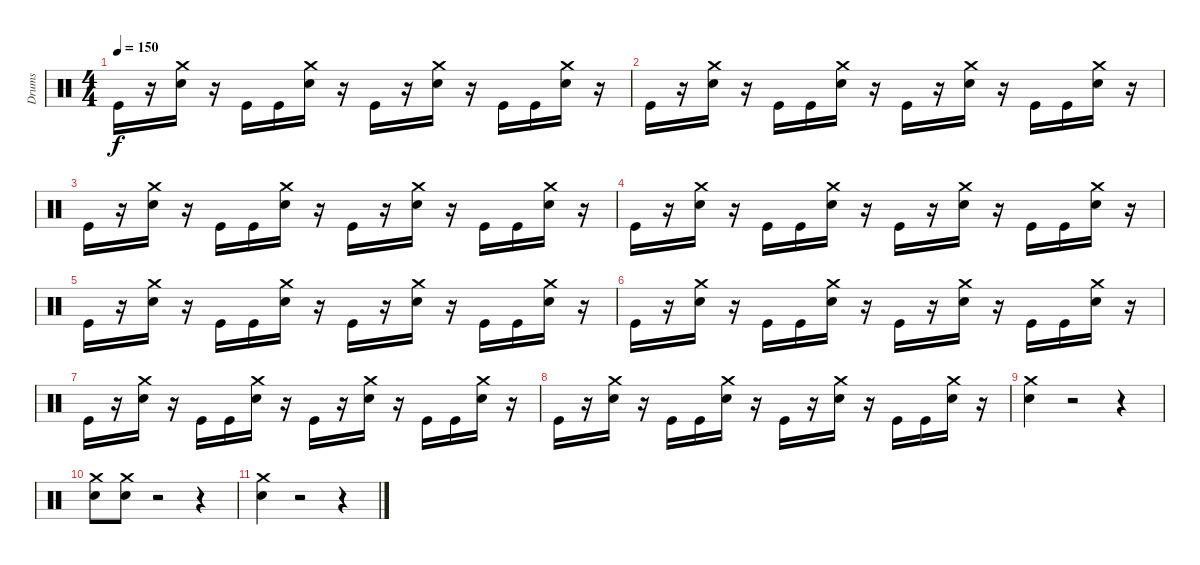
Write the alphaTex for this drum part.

\track ("Drums" "Drums") {instrument percussion}
\staff {score}
\articulation defaults
\ts (4 4)
\tempo 150
\clef neutral
\ks c "Kick (hit)".16{dy f}
r.16 ("Crash medium (hit)" "Snare (hit) 2").16 r.16 "Kick (hit)".16 "Kick (hit)".16 ("Crash medium (hit)" "Snare (hit) 2").16 r.16 "Kick (hit)".16 r.16 ("Crash medium (hit)" "Snare (hit) 2").16 r.16 "Kick (hit)".16 "Kick (hit)".16 ("Crash medium (hit)" "Snare (hit) 2").16 r.16 |
"Kick (hit)".16 r.16 ("Crash medium (hit)" "Snare (hit) 2").16 r.16 "Kick (hit)".16 "Kick (hit)".16 ("Crash medium (hit)" "Snare (hit) 2").16 r.16 "Kick (hit)".16 r.16 ("Crash medium (hit)" "Snare (hit) 2").16 r.16 "Kick (hit)".16 "Kick (hit)".16 ("Crash medium (hit)" "Snare (hit) 2").16 r.16 |
"Kick (hit)".16 r.16 ("Crash medium (hit)" "Snare (hit) 2").16 r.16 "Kick (hit)".16 "Kick (hit)".16 ("Crash medium (hit)" "Snare (hit) 2").16 r.16 "Kick (hit)".16 r.16 ("Crash medium (hit)" "Snare (hit) 2").16 r.16 "Kick (hit)".16 "Kick (hit)".16 ("Crash medium (hit)" "Snare (hit) 2").16 r.16 |
"Kick (hit)".16 r.16 ("Crash medium (hit)" "Snare (hit) 2").16 r.16 "Kick (hit)".16 "Kick (hit)".16 ("Crash medium (hit)" "Snare (hit) 2").16 r.16 "Kick (hit)".16 r.16 ("Crash medium (hit)" "Snare (hit) 2").16 r.16 "Kick (hit)".16 "Kick (hit)".16 ("Crash medium (hit)" "Snare (hit) 2").16 r.16 |
"Kick (hit)".16 r.16 ("Crash medium (hit)" "Snare (hit) 2").16 r.16 "Kick (hit)".16 "Kick (hit)".16 ("Crash medium (hit)" "Snare (hit) 2").16 r.16 "Kick (hit)".16 r.16 ("Crash medium (hit)" "Snare (hit) 2").16 r.16 "Kick (hit)".16 "Kick (hit)".16 ("Crash medium (hit)" "Snare (hit) 2").16 r.16 |
"Kick (hit)".16 r.16 ("Crash medium (hit)" "Snare (hit) 2").16 r.16 "Kick (hit)".16 "Kick (hit)".16 ("Crash medium (hit)" "Snare (hit) 2").16 r.16 "Kick (hit)".16 r.16 ("Crash medium (hit)" "Snare (hit) 2").16 r.16 "Kick (hit)".16 "Kick (hit)".16 ("Crash medium (hit)" "Snare (hit) 2").16 r.16 |
"Kick (hit)".16 r.16 ("Crash medium (hit)" "Snare (hit) 2").16 r.16 "Kick (hit)".16 "Kick (hit)".16 ("Crash medium (hit)" "Snare (hit) 2").16 r.16 "Kick (hit)".16 r.16 ("Crash medium (hit)" "Snare (hit) 2").16 r.16 "Kick (hit)".16 "Kick (hit)".16 ("Crash medium (hit)" "Snare (hit) 2").16 r.16 |
"Kick (hit)".16 r.16 ("Crash medium (hit)" "Snare (hit) 2").16 r.16 "Kick (hit)".16 "Kick (hit)".16 ("Crash medium (hit)" "Snare (hit) 2").16 r.16 "Kick (hit)".16 r.16 ("Crash medium (hit)" "Snare (hit) 2").16 r.16 "Kick (hit)".16 "Kick (hit)".16 ("Crash medium (hit)" "Snare (hit) 2").16 r.16 |
("Crash medium (hit)" "Snare (hit) 2").4 r.2 r.4 |
("Crash medium (hit)" "Snare (hit) 2").8 ("Crash medium (hit)" "Snare (hit) 2").8 r.2 r.4 |
("Crash medium (hit)" "Snare (hit) 2").4 r.2 r.4
